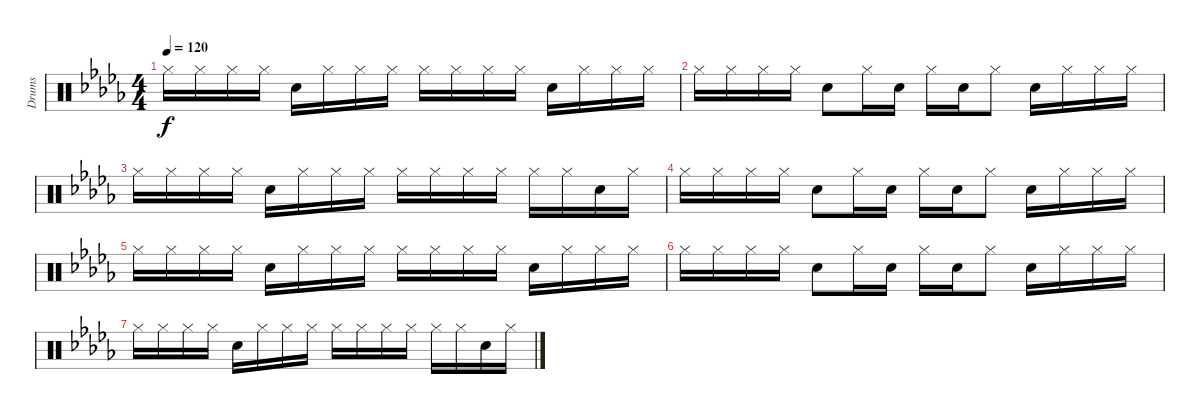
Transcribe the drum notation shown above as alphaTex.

\track ("Drums" "Drums") {instrument percussion}
\staff {score}
\articulation defaults
\ts (4 4)
\tempo 120
\clef neutral
\ks db "Hi-Hat (closed)".16{dy f} "Hi-Hat (closed)".16 "Hi-Hat (closed)".16 "Hi-Hat (closed)".16 "Snare (hit) 2".16 "Hi-Hat (closed)".16 "Hi-Hat (closed)".16 "Hi-Hat (closed)".16 "Hi-Hat (closed)".16 "Hi-Hat (closed)".16 "Hi-Hat (closed)".16 "Hi-Hat (closed)".16 "Snare (hit) 2".16 "Hi-Hat (closed)".16 "Hi-Hat (closed)".16 "Hi-Hat (closed)".16
|
"Hi-Hat (closed)".16 "Hi-Hat (closed)".16 "Hi-Hat (closed)".16 "Hi-Hat (closed)".16 "Snare (hit) 2".8 "Hi-Hat (closed)".16 "Snare (hit) 2".16 "Hi-Hat (closed)".16 "Snare (hit) 2".16 "Hi-Hat (closed)".8 "Snare (hit) 2".16 "Hi-Hat (closed)".16 "Hi-Hat (closed)".16 "Hi-Hat (closed)".16 |
"Hi-Hat (closed)".16 "Hi-Hat (closed)".16 "Hi-Hat (closed)".16 "Hi-Hat (closed)".16 "Snare (hit) 2".16 "Hi-Hat (closed)".16 "Hi-Hat (closed)".16 "Hi-Hat (closed)".16 "Hi-Hat (closed)".16 "Hi-Hat (closed)".16 "Hi-Hat (closed)".16 "Hi-Hat (closed)".16 "Hi-Hat (closed)".16 "Hi-Hat (closed)".16 "Snare (hit) 2".16 "Hi-Hat (closed)".16 |
"Hi-Hat (closed)".16 "Hi-Hat (closed)".16 "Hi-Hat (closed)".16 "Hi-Hat (closed)".16 "Snare (hit) 2".8 "Hi-Hat (closed)".16 "Snare (hit) 2".16 "Hi-Hat (closed)".16 "Snare (hit) 2".16 "Hi-Hat (closed)".8 "Snare (hit) 2".16 "Hi-Hat (closed)".16 "Hi-Hat (closed)".16 "Hi-Hat (closed)".16 |
"Hi-Hat (closed)".16 "Hi-Hat (closed)".16 "Hi-Hat (closed)".16 "Hi-Hat (closed)".16 "Snare (hit) 2".16 "Hi-Hat (closed)".16 "Hi-Hat (closed)".16 "Hi-Hat (closed)".16 "Hi-Hat (closed)".16 "Hi-Hat (closed)".16 "Hi-Hat (closed)".16 "Hi-Hat (closed)".16 "Snare (hit) 2".16 "Hi-Hat (closed)".16 "Hi-Hat (closed)".16 "Hi-Hat (closed)".16 |
"Hi-Hat (closed)".16 "Hi-Hat (closed)".16 "Hi-Hat (closed)".16 "Hi-Hat (closed)".16 "Snare (hit) 2".8 "Hi-Hat (closed)".16 "Snare (hit) 2".16 "Hi-Hat (closed)".16 "Snare (hit) 2".16 "Hi-Hat (closed)".8 "Snare (hit) 2".16 "Hi-Hat (closed)".16 "Hi-Hat (closed)".16 "Hi-Hat (closed)".16 |
"Hi-Hat (closed)".16 "Hi-Hat (closed)".16 "Hi-Hat (closed)".16 "Hi-Hat (closed)".16 "Snare (hit) 2".16 "Hi-Hat (closed)".16 "Hi-Hat (closed)".16 "Hi-Hat (closed)".16 "Hi-Hat (closed)".16 "Hi-Hat (closed)".16 "Hi-Hat (closed)".16 "Hi-Hat (closed)".16 "Hi-Hat (closed)".16 "Hi-Hat (closed)".16 "Snare (hit) 2".16 "Hi-Hat (closed)".16
